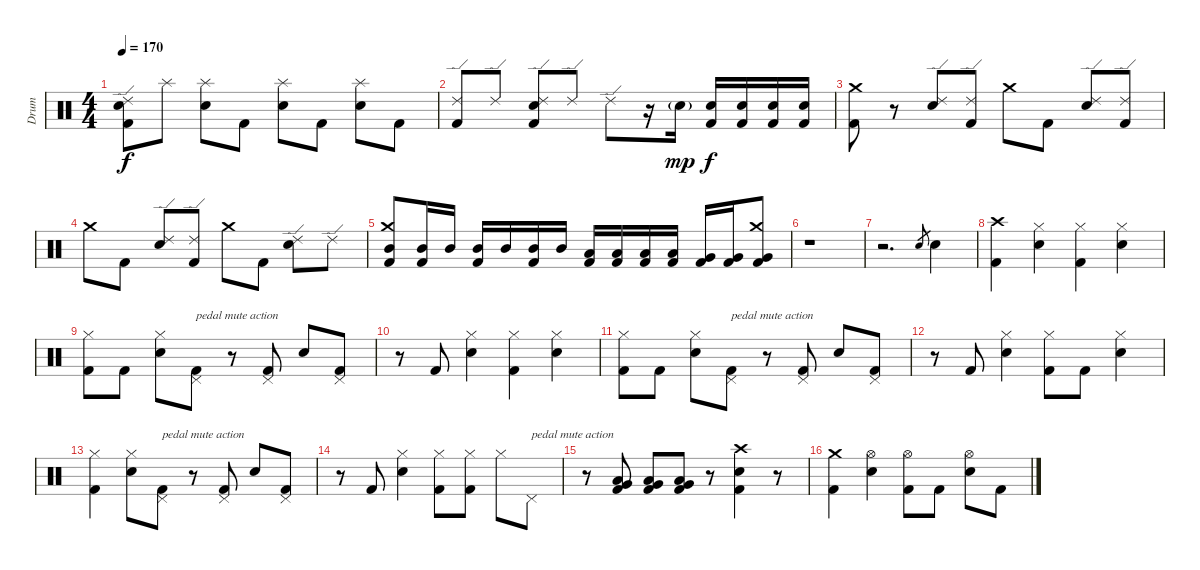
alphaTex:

\track ("Drum" "Drum") {instrument percussion}
\staff {score}
\articulation defaults
\ts (4 4)
\tempo 170
\clef neutral
\ks c
("Ride (edge) 2" "Electric Snare (hit)" "Kick (hit) 2").8{dy f} "Splash (hit)".8 ("Splash (hit)" "Electric Snare (hit)").8 "Kick (hit) 2".8 ("Splash (hit)" "Electric Snare (hit)").8 "Kick (hit) 2".8 ("Splash (hit)" "Electric Snare (hit)").8 "Kick (hit) 2".8 |
("Ride (edge) 2" "Kick (hit) 2").8 "Ride (edge) 2".8 ("Ride (edge) 2" "Electric Snare (hit)" "Kick (hit) 2").8 "Ride (edge) 2".8 "Ride (edge) 2".8 r.16 "Electric Snare (hit)"{g}.16{dy mp} ("Electric Snare (hit)" "Kick (hit) 2").16{dy f} ("Electric Snare (hit)" "Kick (hit) 2").16 ("Electric Snare (hit)" "Kick (hit) 2").16 ("Electric Snare (hit)" "Kick (hit) 2").16 |
("Crash medium (hit)" "Kick (hit) 2").8 r.8 ("Ride (edge) 2" "Electric Snare (hit)").8 ("Ride (edge) 2" "Kick (hit) 2").8 "Crash medium (hit)".8 "Kick (hit) 2".8 ("Ride (edge) 2" "Electric Snare (hit)").8 ("Ride (edge) 2" "Kick (hit) 2").8 |
"Crash medium (hit)".8 "Kick (hit) 2".8 ("Ride (edge) 2" "Electric Snare (hit)").8 ("Ride (edge) 2" "Kick (hit) 2").8 "Crash medium (hit)".8 "Kick (hit) 2".8 ("Ride (edge) 2" "Electric Snare (hit)").8 "Ride (edge) 2".8 |
("Crash medium (hit)" "Mid Tom (hit)" "Kick (hit) 2").8 ("Mid Tom (hit)" "Kick (hit) 2").16 "Mid Tom (hit)".16 ("Mid Tom (hit)" "Kick (hit) 2").16 "Mid Tom (hit)".16 ("Mid Tom (hit)" "Kick (hit) 2").16 "Mid Tom (hit)".16 ("Low Tom (hit)" "Kick (hit) 2").16 ("Low Tom (hit)" "Kick (hit) 2").16 ("Low Tom (hit)" "Kick (hit) 2").16 ("Low Tom (hit)" "Kick (hit) 2").16 ("Very Low Tom (hit)" "Kick (hit) 2").16 ("Very Low Tom (hit)" "Kick (hit) 2").16 ("Crash medium (hit)" "Very Low Tom (hit)" "Kick (hit) 2").8 |
r.1 |
r.2{d} "Electric Snare (hit)".8{gr} "Electric Snare (hit)".4 |
("Crash high (hit)" "Kick (hit) 2").4 ("Hi-Hat (closed)" "Electric Snare (hit)").4 ("Hi-Hat (closed)" "Kick (hit) 2").4 ("Hi-Hat (closed)" "Electric Snare (hit)").4 |
("Hi-Hat (closed)" "Kick (hit) 2").8 "Kick (hit) 2".8 ("Hi-Hat (closed)" "Electric Snare (hit)").8 ("Pedal Hi-Hat (hit)" "Kick (hit) 2").8{txt "pedal mute action"} r.8 ("Pedal Hi-Hat (hit)" "Kick (hit) 2").8 "Electric Snare (hit)".8 ("Pedal Hi-Hat (hit)" "Kick (hit) 2").8 |
r.8 "Kick (hit) 2".8 ("Hi-Hat (closed)" "Electric Snare (hit)").4 ("Hi-Hat (closed)" "Kick (hit) 2").4 ("Hi-Hat (closed)" "Electric Snare (hit)").4 |
("Hi-Hat (closed)" "Kick (hit) 2").8 "Kick (hit) 2".8 ("Hi-Hat (closed)" "Electric Snare (hit)").8 ("Pedal Hi-Hat (hit)" "Kick (hit) 2").8{txt "pedal mute action"} r.8 ("Pedal Hi-Hat (hit)" "Kick (hit) 2").8 "Electric Snare (hit)".8 ("Pedal Hi-Hat (hit)" "Kick (hit) 2").8 |
r.8 "Kick (hit) 2".8 ("Hi-Hat (closed)" "Electric Snare (hit)").4 ("Hi-Hat (closed)" "Kick (hit) 2").8 "Kick (hit) 2".8 ("Hi-Hat (closed)" "Electric Snare (hit)").4 |
("Hi-Hat (closed)" "Kick (hit) 2").4 ("Hi-Hat (closed)" "Electric Snare (hit)").8 ("Pedal Hi-Hat (hit)" "Kick (hit) 2").8{txt "pedal mute action"} r.8 ("Pedal Hi-Hat (hit)" "Kick (hit) 2").8 "Electric Snare (hit)".8 ("Pedal Hi-Hat (hit)" "Kick (hit) 2").8 |
r.8 "Kick (hit) 2".8 ("Hi-Hat (closed)" "Electric Snare (hit)").4 ("Hi-Hat (closed)" "Kick (hit) 2").8 ("Hi-Hat (closed)" "Kick (hit) 2").8 "Hi-Hat (closed)".8 "Pedal Hi-Hat (hit)".8{txt "pedal mute action"} |
r.8 ("Very Low Tom (hit)" "Low Floor Tom (hit)" "Kick (hit) 2").8 ("Very Low Tom (hit)" "Low Floor Tom (hit)" "Kick (hit) 2").8 ("Very Low Tom (hit)" "Low Floor Tom (hit)" "Kick (hit) 2").8 r.8 ("Crash high (hit)" "Electric Snare (hit)" "Kick (hit) 2").4 r.8 |
("Crash medium (hit)" "Kick (hit) 2").4 ("Hi-Hat (open)" "Electric Snare (hit)").4 ("Hi-Hat (open)" "Kick (hit) 2").8 "Kick (hit) 2".8 ("Hi-Hat (open)" "Electric Snare (hit)").8 "Kick (hit) 2".8
